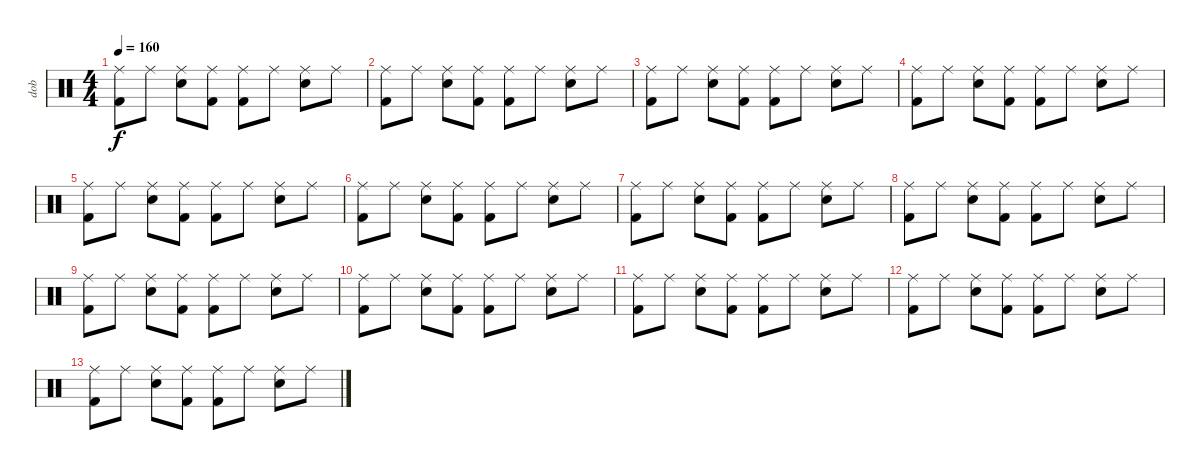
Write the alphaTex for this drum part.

\track ("dob" "dob") {instrument percussion}
\staff {score}
\articulation defaults
\ts (4 4)
\tempo 160
\clef neutral
\ks c
("Ride (middle)" "Kick (hit) 2").8{dy f} "Ride (middle)".8 ("Ride (middle)" "Snare (hit) 2").8 ("Ride (middle)" "Kick (hit) 2").8 ("Ride (middle)" "Kick (hit) 2").8 "Ride (middle)".8 ("Ride (middle)" "Snare (hit) 2").8 "Ride (middle)".8 |
("Ride (middle)" "Kick (hit) 2").8 "Ride (middle)".8 ("Ride (middle)" "Snare (hit) 2").8 ("Ride (middle)" "Kick (hit) 2").8 ("Ride (middle)" "Kick (hit) 2").8 "Ride (middle)".8 ("Ride (middle)" "Snare (hit) 2").8 "Ride (middle)".8 |
("Ride (middle)" "Kick (hit) 2").8 "Ride (middle)".8 ("Ride (middle)" "Snare (hit) 2").8 ("Ride (middle)" "Kick (hit) 2").8 ("Ride (middle)" "Kick (hit) 2").8 "Ride (middle)".8 ("Ride (middle)" "Snare (hit) 2").8 "Ride (middle)".8 |
("Ride (middle)" "Kick (hit) 2").8 "Ride (middle)".8 ("Ride (middle)" "Snare (hit) 2").8 ("Ride (middle)" "Kick (hit) 2").8 ("Ride (middle)" "Kick (hit) 2").8 "Ride (middle)".8 ("Ride (middle)" "Snare (hit) 2").8 "Ride (middle)".8 |
("Ride (middle)" "Kick (hit) 2").8 "Ride (middle)".8 ("Ride (middle)" "Snare (hit) 2").8 ("Ride (middle)" "Kick (hit) 2").8 ("Ride (middle)" "Kick (hit) 2").8 "Ride (middle)".8 ("Ride (middle)" "Snare (hit) 2").8 "Ride (middle)".8 |
("Ride (middle)" "Kick (hit) 2").8 "Ride (middle)".8 ("Ride (middle)" "Snare (hit) 2").8 ("Ride (middle)" "Kick (hit) 2").8 ("Ride (middle)" "Kick (hit) 2").8 "Ride (middle)".8 ("Ride (middle)" "Snare (hit) 2").8 "Ride (middle)".8 |
("Ride (middle)" "Kick (hit) 2").8 "Ride (middle)".8 ("Ride (middle)" "Snare (hit) 2").8 ("Ride (middle)" "Kick (hit) 2").8 ("Ride (middle)" "Kick (hit) 2").8 "Ride (middle)".8 ("Ride (middle)" "Snare (hit) 2").8 "Ride (middle)".8 |
("Ride (middle)" "Kick (hit) 2").8 "Ride (middle)".8 ("Ride (middle)" "Snare (hit) 2").8 ("Ride (middle)" "Kick (hit) 2").8 ("Ride (middle)" "Kick (hit) 2").8 "Ride (middle)".8 ("Ride (middle)" "Snare (hit) 2").8 "Ride (middle)".8 |
("Ride (middle)" "Kick (hit) 2").8 "Ride (middle)".8 ("Ride (middle)" "Snare (hit) 2").8 ("Ride (middle)" "Kick (hit) 2").8 ("Ride (middle)" "Kick (hit) 2").8 "Ride (middle)".8 ("Ride (middle)" "Snare (hit) 2").8 "Ride (middle)".8 |
("Ride (middle)" "Kick (hit) 2").8 "Ride (middle)".8 ("Ride (middle)" "Snare (hit) 2").8 ("Ride (middle)" "Kick (hit) 2").8 ("Ride (middle)" "Kick (hit) 2").8 "Ride (middle)".8 ("Ride (middle)" "Snare (hit) 2").8 "Ride (middle)".8 |
("Ride (middle)" "Kick (hit) 2").8 "Ride (middle)".8 ("Ride (middle)" "Snare (hit) 2").8 ("Ride (middle)" "Kick (hit) 2").8 ("Ride (middle)" "Kick (hit) 2").8 "Ride (middle)".8 ("Ride (middle)" "Snare (hit) 2").8 "Ride (middle)".8 |
("Ride (middle)" "Kick (hit) 2").8 "Ride (middle)".8 ("Ride (middle)" "Snare (hit) 2").8 ("Ride (middle)" "Kick (hit) 2").8 ("Ride (middle)" "Kick (hit) 2").8 "Ride (middle)".8 ("Ride (middle)" "Snare (hit) 2").8 "Ride (middle)".8 |
("Ride (middle)" "Kick (hit) 2").8 "Ride (middle)".8 ("Ride (middle)" "Snare (hit) 2").8 ("Ride (middle)" "Kick (hit) 2").8 ("Ride (middle)" "Kick (hit) 2").8 "Ride (middle)".8 ("Ride (middle)" "Snare (hit) 2").8 "Ride (middle)".8
